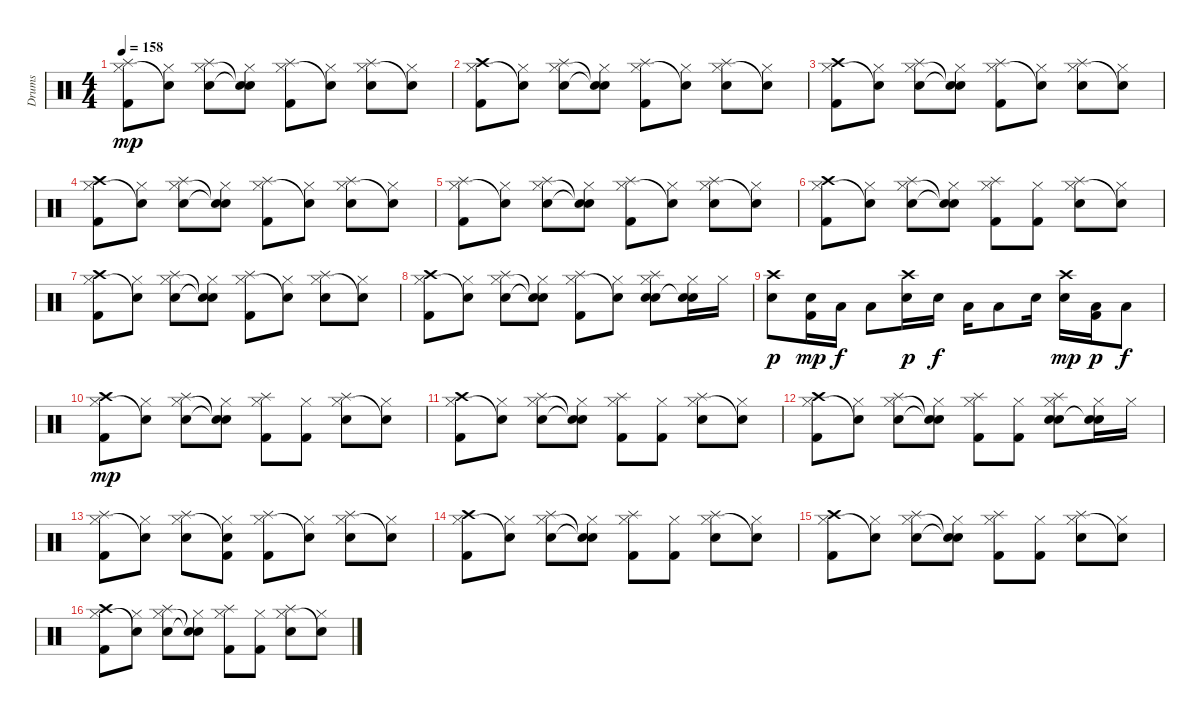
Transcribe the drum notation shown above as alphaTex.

\track ("Drums" "Drums") {instrument percussion}
\staff {score}
\articulation defaults
\ts (4 4)
\tempo 158
\clef neutral
\ks c
("Splash (hit)" "Hi-Hat (closed)" "Kick (hit) 2").8{dy mp} ("Hi-Hat (closed)" "Snare (hit)"{t}).8 ("Splash (hit)" "Hi-Hat (closed)" "Electric Snare (hit)").8 ("Hi-Hat (closed)" "Electric Snare (hit)"{t} "Snare (hit)"{t}).8 ("Splash (hit)" "Hi-Hat (closed)" "Kick (hit) 2").8 ("Hi-Hat (closed)" "Snare (hit)"{t}).8 ("Splash (hit)" "Hi-Hat (closed)" "Electric Snare (hit)").8 ("Hi-Hat (closed)" "Snare (hit)"{t}).8 |
("Crash high (hit)" "Hi-Hat (closed)" "Kick (hit) 2").8 ("Hi-Hat (closed)" "Snare (hit)"{t}).8 ("Splash (hit)" "Hi-Hat (closed)" "Electric Snare (hit)").8 ("Hi-Hat (closed)" "Electric Snare (hit)"{t} "Snare (hit)"{t}).8 ("Splash (hit)" "Hi-Hat (closed)" "Kick (hit) 2").8 ("Hi-Hat (closed)" "Snare (hit)"{t}).8 ("Splash (hit)" "Hi-Hat (closed)" "Electric Snare (hit)").8 ("Hi-Hat (closed)" "Snare (hit)"{t}).8 |
("Crash high (hit)" "Hi-Hat (closed)" "Kick (hit) 2").8 ("Hi-Hat (closed)" "Snare (hit)"{t}).8 ("Splash (hit)" "Hi-Hat (closed)" "Electric Snare (hit)").8 ("Hi-Hat (closed)" "Electric Snare (hit)"{t} "Snare (hit)"{t}).8 ("Splash (hit)" "Hi-Hat (closed)" "Kick (hit) 2").8 ("Hi-Hat (closed)" "Snare (hit)"{t}).8 ("Splash (hit)" "Hi-Hat (closed)" "Electric Snare (hit)").8 ("Hi-Hat (closed)" "Snare (hit)"{t}).8 |
("Crash high (hit)" "Hi-Hat (closed)" "Kick (hit) 2").8 ("Hi-Hat (closed)" "Snare (hit)"{t}).8 ("Splash (hit)" "Hi-Hat (closed)" "Electric Snare (hit)").8 ("Hi-Hat (closed)" "Electric Snare (hit)"{t} "Snare (hit)"{t}).8 ("Splash (hit)" "Hi-Hat (closed)" "Kick (hit) 2").8 ("Hi-Hat (closed)" "Snare (hit)"{t}).8 ("Splash (hit)" "Hi-Hat (closed)" "Electric Snare (hit)").8 ("Hi-Hat (closed)" "Snare (hit)"{t}).8 |
("Splash (hit)" "Hi-Hat (closed)" "Kick (hit) 2").8 ("Hi-Hat (closed)" "Snare (hit)"{t}).8 ("Splash (hit)" "Hi-Hat (closed)" "Electric Snare (hit)").8 ("Hi-Hat (closed)" "Electric Snare (hit)"{t} "Snare (hit)"{t}).8 ("Splash (hit)" "Hi-Hat (closed)" "Kick (hit) 2").8 ("Hi-Hat (closed)" "Snare (hit)"{t}).8 ("Splash (hit)" "Hi-Hat (closed)" "Electric Snare (hit)").8 ("Hi-Hat (closed)" "Snare (hit)"{t}).8 |
("Crash high (hit)" "Hi-Hat (closed)" "Kick (hit) 2").8 ("Hi-Hat (closed)" "Snare (hit)"{t}).8 ("Splash (hit)" "Hi-Hat (closed)" "Electric Snare (hit)").8 ("Hi-Hat (closed)" "Electric Snare (hit)"{t} "Snare (hit)"{t}).8 ("Splash (hit)" "Hi-Hat (closed)" "Kick (hit) 2").8 ("Hi-Hat (closed)" "Kick (hit) 2").8 ("Splash (hit)" "Hi-Hat (closed)" "Electric Snare (hit)").8 ("Hi-Hat (closed)" "Snare (hit)"{t}).8 |
("Crash high (hit)" "Hi-Hat (closed)" "Kick (hit) 2").8 ("Hi-Hat (closed)" "Snare (hit)"{t}).8 ("Splash (hit)" "Hi-Hat (closed)" "Electric Snare (hit)").8 ("Hi-Hat (closed)" "Electric Snare (hit)"{t} "Snare (hit)"{t}).8 ("Splash (hit)" "Hi-Hat (closed)" "Kick (hit) 2").8 ("Hi-Hat (closed)" "Snare (hit)"{t}).8 ("Splash (hit)" "Hi-Hat (closed)" "Electric Snare (hit)").8 ("Hi-Hat (closed)" "Snare (hit)"{t}).8 |
("Crash high (hit)" "Hi-Hat (closed)" "Kick (hit) 2").8 ("Hi-Hat (closed)" "Snare (hit)"{t}).8 ("Splash (hit)" "Hi-Hat (closed)" "Electric Snare (hit)").8 ("Hi-Hat (closed)" "Electric Snare (hit)"{t} "Snare (hit)"{t}).8 ("Splash (hit)" "Hi-Hat (closed)" "Kick (hit) 2").8 ("Hi-Hat (closed)" "Snare (hit)"{t}).8 ("Splash (hit)" "Hi-Hat (closed)" "Electric Snare (hit)" "Electric Snare (hit)").8 ("Hi-Hat (closed)" "Electric Snare (hit)" "Snare (hit)"{t}).16 "Hi-Hat (closed)".16 |
("Crash high (hit)" "Electric Snare (hit)").8{dy p} ("Electric Snare (hit)" "Kick (hit) 2").16{dy mp} "Low Tom (hit)".16{dy f} "Low Tom (hit)".8 ("Crash high (hit)" "Electric Snare (hit)").16{dy p} "Electric Snare (hit)".16{dy f} "Low Tom (hit)".16 "Low Tom (hit)".8 "Electric Snare (hit)".16 ("Crash high (hit)" "Electric Snare (hit)").16{dy mp} ("Low Tom (hit)" "Kick (hit) 2").16{dy p} "Low Tom (hit)".8{dy f} |
("Crash high (hit)" "Hi-Hat (closed)" "Kick (hit) 2").8{dy mp} ("Hi-Hat (closed)" "Snare (hit)"{t}).8 ("Splash (hit)" "Hi-Hat (closed)" "Electric Snare (hit)").8 ("Hi-Hat (closed)" "Electric Snare (hit)"{t} "Snare (hit)"{t}).8 ("Splash (hit)" "Hi-Hat (closed)" "Kick (hit) 2").8 ("Hi-Hat (closed)" "Kick (hit) 2").8 ("Splash (hit)" "Hi-Hat (closed)" "Electric Snare (hit)").8 ("Hi-Hat (closed)" "Snare (hit)"{t}).8 |
("Crash high (hit)" "Hi-Hat (closed)" "Kick (hit) 2").8 ("Hi-Hat (closed)" "Snare (hit)"{t}).8 ("Splash (hit)" "Hi-Hat (closed)" "Electric Snare (hit)").8 ("Hi-Hat (closed)" "Electric Snare (hit)"{t} "Snare (hit)"{t}).8 ("Splash (hit)" "Hi-Hat (closed)" "Kick (hit) 2").8 ("Hi-Hat (closed)" "Kick (hit) 2").8 ("Splash (hit)" "Hi-Hat (closed)" "Electric Snare (hit)").8 ("Hi-Hat (closed)" "Snare (hit)"{t}).8 |
("Crash high (hit)" "Hi-Hat (closed)" "Kick (hit) 2").8 ("Hi-Hat (closed)" "Snare (hit)"{t}).8 ("Splash (hit)" "Hi-Hat (closed)" "Electric Snare (hit)").8 ("Hi-Hat (closed)" "Electric Snare (hit)"{t} "Snare (hit)"{t}).8 ("Splash (hit)" "Hi-Hat (closed)" "Kick (hit) 2").8 ("Hi-Hat (closed)" "Kick (hit) 2").8 ("Splash (hit)" "Hi-Hat (closed)" "Electric Snare (hit)" "Electric Snare (hit)").8 ("Hi-Hat (closed)" "Electric Snare (hit)" "Snare (hit)"{t}).16 "Hi-Hat (closed)".16 |
("Splash (hit)" "Hi-Hat (closed)" "Kick (hit) 2").8 ("Hi-Hat (closed)" "Snare (hit)"{t}).8 ("Splash (hit)" "Hi-Hat (closed)" "Electric Snare (hit)").8 ("Hi-Hat (closed)" "Electric Snare (hit)"{t} "Kick (hit) 2").8 ("Splash (hit)" "Hi-Hat (closed)" "Kick (hit) 2").8 ("Hi-Hat (closed)" "Snare (hit)"{t}).8 ("Splash (hit)" "Hi-Hat (closed)" "Electric Snare (hit)").8 ("Hi-Hat (closed)" "Snare (hit)"{t}).8 |
("Crash high (hit)" "Hi-Hat (closed)" "Kick (hit) 2").8 ("Hi-Hat (closed)" "Snare (hit)"{t}).8 ("Splash (hit)" "Hi-Hat (closed)" "Electric Snare (hit)").8 ("Hi-Hat (closed)" "Electric Snare (hit)"{t} "Snare (hit)"{t}).8 ("Splash (hit)" "Hi-Hat (closed)" "Kick (hit) 2").8 ("Hi-Hat (closed)" "Kick (hit) 2").8 ("Splash (hit)" "Hi-Hat (closed)" "Electric Snare (hit)").8 ("Hi-Hat (closed)" "Snare (hit)"{t}).8 |
("Crash high (hit)" "Hi-Hat (closed)" "Kick (hit) 2").8 ("Hi-Hat (closed)" "Snare (hit)"{t}).8 ("Splash (hit)" "Hi-Hat (closed)" "Electric Snare (hit)").8 ("Hi-Hat (closed)" "Electric Snare (hit)"{t} "Snare (hit)"{t}).8 ("Splash (hit)" "Hi-Hat (closed)" "Kick (hit) 2").8 ("Hi-Hat (closed)" "Kick (hit) 2").8 ("Splash (hit)" "Hi-Hat (closed)" "Electric Snare (hit)").8 ("Hi-Hat (closed)" "Snare (hit)"{t}).8 |
("Crash high (hit)" "Hi-Hat (closed)" "Kick (hit) 2").8 ("Hi-Hat (closed)" "Snare (hit)"{t}).8 ("Splash (hit)" "Hi-Hat (closed)" "Electric Snare (hit)").8 ("Hi-Hat (closed)" "Electric Snare (hit)"{t} "Snare (hit)"{t}).8 ("Splash (hit)" "Hi-Hat (closed)" "Kick (hit) 2").8 ("Hi-Hat (closed)" "Kick (hit) 2").8 ("Splash (hit)" "Hi-Hat (closed)" "Electric Snare (hit)").8 ("Hi-Hat (closed)" "Snare (hit)"{t}).8
